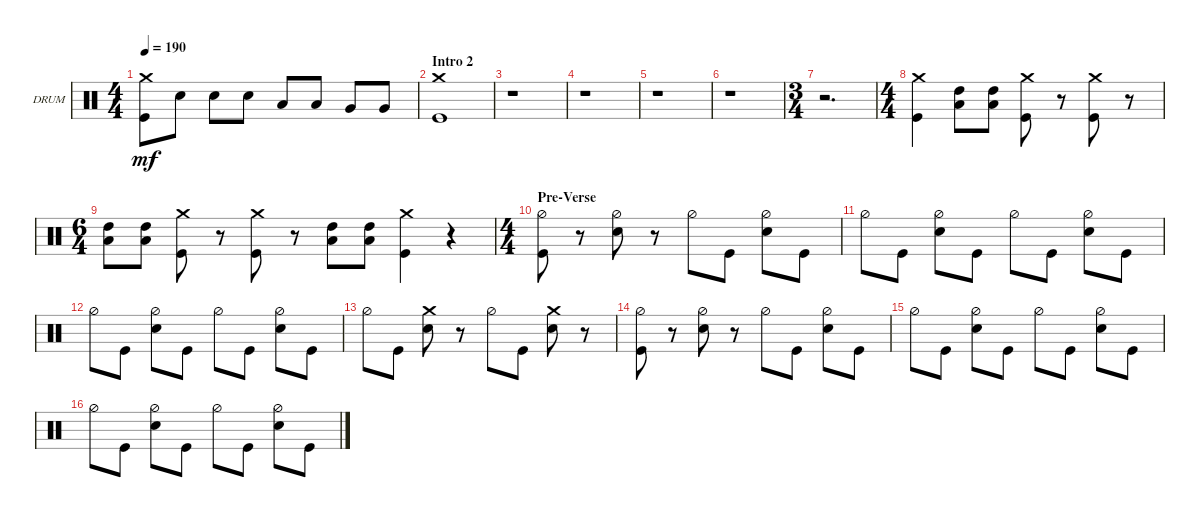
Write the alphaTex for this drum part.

\defaultSystemsLayout 4
\bracketExtendMode groupsimilarinstruments
\firstSystemTrackNameOrientation horizontal
\otherSystemsTrackNameOrientation horizontal
\track ("Drums" "DRUM") {instrument percussion}
\staff {score}
\articulation defaults
\ts (4 4)
\tempo 190
\clef neutral
\ks c
("Kick (hit)" "Crash medium (hit)").8{dy mf} "Snare (hit) 2".8 "Snare (hit) 2".8 "Snare (hit) 2".8 "Low Tom (hit)".8 "Low Tom (hit)".8 "Very Low Tom (hit)".8 "Very Low Tom (hit)".8 |
\section ("" "Intro 2")
("Kick (hit)" "Crash medium (hit)").1 |
r.1 |
r.1 |
r.1 |
r.1 |
\ts (3 4)
r.2{d} |
\ts (4 4)
("Kick (hit)" "Crash medium (hit)").4 ("High Tom (hit)" "Low Tom (hit)").8 ("High Tom (hit)" "Low Tom (hit)").8 ("Kick (hit)" "Crash medium (hit)").8 r.8 ("Kick (hit)" "Crash medium (hit)").8 r.8 |
\ts (6 4)
("High Tom (hit)" "Low Tom (hit)").8 ("High Tom (hit)" "Low Tom (hit)").8 ("Kick (hit)" "Crash medium (hit)").8 r.8 ("Kick (hit)" "Crash medium (hit)").8 r.8 ("High Tom (hit)" "Low Tom (hit)").8 ("High Tom (hit)" "Low Tom (hit)").8 ("Kick (hit)" "Crash medium (hit)").4 r.4 |
\ts (4 4)
\section ("" "Pre-Verse")
("Kick (hit)" "Hi-Hat (half)").8 r.8 ("Snare (hit) 2" "Hi-Hat (half)").8 r.8 "Hi-Hat (half)".8 "Kick (hit)".8 ("Snare (hit) 2" "Hi-Hat (half)").8 "Kick (hit)".8 |
"Hi-Hat (half)".8 "Kick (hit)".8 ("Snare (hit) 2" "Hi-Hat (half)").8 "Kick (hit)".8 "Hi-Hat (half)".8 "Kick (hit)".8 ("Snare (hit) 2" "Hi-Hat (half)").8 "Kick (hit)".8 |
"Hi-Hat (half)".8 "Kick (hit)".8 ("Snare (hit) 2" "Hi-Hat (half)").8 "Kick (hit)".8 "Hi-Hat (half)".8 "Kick (hit)".8 ("Snare (hit) 2" "Hi-Hat (half)").8 "Kick (hit)".8 |
"Hi-Hat (half)".8 "Kick (hit)".8 ("Snare (hit) 2" "Crash medium (hit)").8 r.8 "Hi-Hat (half)".8 "Kick (hit)".8 ("Snare (hit) 2" "Crash medium (hit)").8 r.8 |
("Kick (hit)" "Hi-Hat (half)").8 r.8 ("Snare (hit) 2" "Hi-Hat (half)").8 r.8 "Hi-Hat (half)".8 "Kick (hit)".8 ("Snare (hit) 2" "Hi-Hat (half)").8 "Kick (hit)".8 |
"Hi-Hat (half)".8 "Kick (hit)".8 ("Snare (hit) 2" "Hi-Hat (half)").8 "Kick (hit)".8 "Hi-Hat (half)".8 "Kick (hit)".8 ("Snare (hit) 2" "Hi-Hat (half)").8 "Kick (hit)".8 |
"Hi-Hat (half)".8 "Kick (hit)".8 ("Snare (hit) 2" "Hi-Hat (half)").8 "Kick (hit)".8 "Hi-Hat (half)".8 "Kick (hit)".8 ("Snare (hit) 2" "Hi-Hat (half)").8 "Kick (hit)".8
